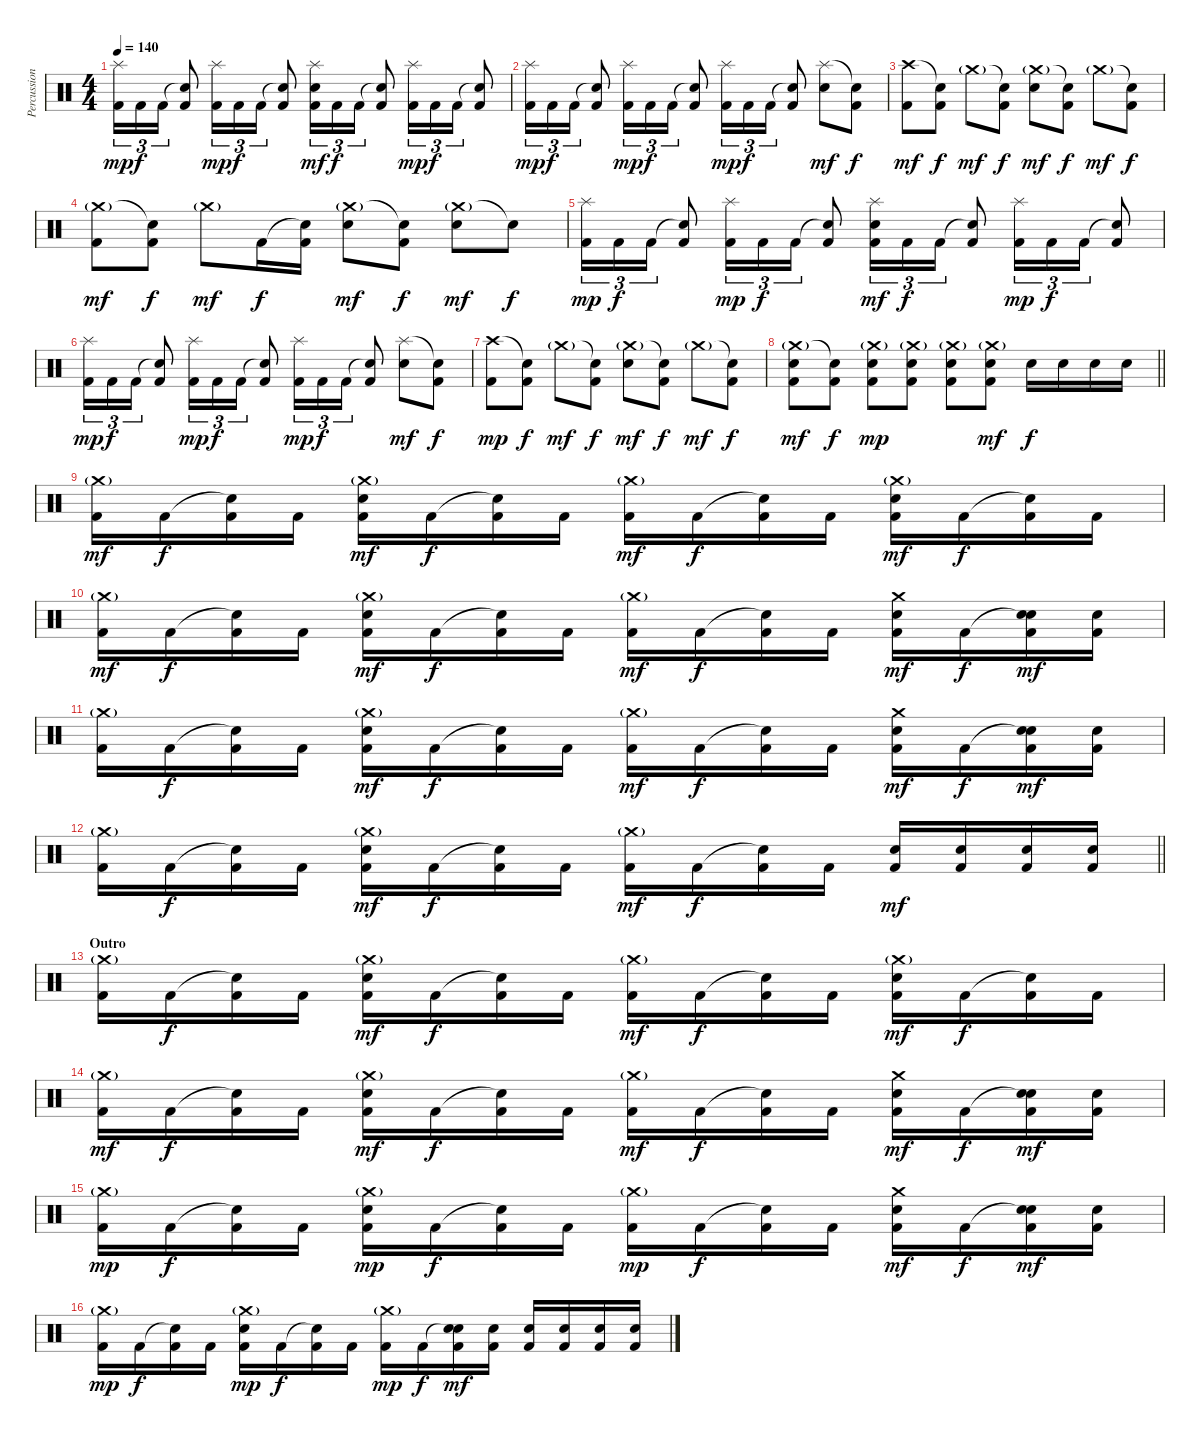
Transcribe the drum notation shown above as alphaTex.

\track ("Percussion" "Percussion") {instrument percussion}
\staff {score}
\articulation defaults
\ts (4 4)
\tempo 140
\clef neutral
\ks c
("Splash (hit)" "Kick (hit) 2").16{tu (3 2) dy mp} "Kick (hit) 2".16{tu (3 2) dy f} "Kick (hit) 2".16{tu (3 2)} ("Snare (hit)"{t} "Kick (hit) 2").8 ("Splash (hit)" "Kick (hit) 2").16{tu (3 2) dy mp} "Kick (hit) 2".16{tu (3 2) dy f} "Kick (hit) 2".16{tu (3 2)} ("Snare (hit)"{t} "Kick (hit) 2").8 ("Splash (hit)" "Electric Snare (hit)" "Kick (hit) 2").16{tu (3 2) dy mf} "Kick (hit) 2".16{tu (3 2) dy f} "Kick (hit) 2".16{tu (3 2)} ("Snare (hit)"{t} "Kick (hit) 2").8 ("Splash (hit)" "Kick (hit) 2").16{tu (3 2) dy mp} "Kick (hit) 2".16{tu (3 2) dy f} "Kick (hit) 2".16{tu (3 2)} ("Snare (hit)"{t} "Kick (hit) 2").8 |
("Splash (hit)" "Kick (hit) 2").16{tu (3 2) dy mp} "Kick (hit) 2".16{tu (3 2) dy f} "Kick (hit) 2".16{tu (3 2)} ("Snare (hit)"{t} "Kick (hit) 2").8 ("Splash (hit)" "Kick (hit) 2").16{tu (3 2) dy mp} "Kick (hit) 2".16{tu (3 2) dy f} "Kick (hit) 2".16{tu (3 2)} ("Snare (hit)"{t} "Kick (hit) 2").8 ("Splash (hit)" "Kick (hit) 2").16{tu (3 2) dy mp} "Kick (hit) 2".16{tu (3 2) dy f} "Kick (hit) 2".16{tu (3 2)} ("Snare (hit)"{t} "Kick (hit) 2").8 ("Splash (hit)" "Electric Snare (hit)").8{dy mf} ("Snare (hit)"{t} "Kick (hit) 2").8{dy f} |
("Crash high (hit)" "Kick (hit) 2").8{dy mf} ("Snare (hit)"{t} "Kick (hit) 2").8{dy f} "Crash medium (hit)"{g}.8{dy mf} ("Snare (hit)"{t} "Kick (hit) 2").8{dy f} ("Crash medium (hit)"{g} "Electric Snare (hit)").8{dy mf} ("Snare (hit)"{t} "Kick (hit) 2").8{dy f} "Crash medium (hit)"{g}.8{dy mf} ("Snare (hit)"{t} "Kick (hit) 2").8{dy f} |
("Crash medium (hit)"{g} "Kick (hit) 2").8{dy mf} ("Snare (hit)"{t} "Kick (hit) 2").8{dy f} "Crash medium (hit)"{g}.8{dy mf} "Kick (hit) 2".16{dy f} ("Snare (hit)"{t} "Kick (hit) 2").16 ("Crash medium (hit)"{g} "Electric Snare (hit)").8{dy mf} ("Snare (hit)"{t} "Kick (hit) 2").8{dy f} ("Crash medium (hit)"{g} "Electric Snare (hit)").8{dy mf} "Snare (hit)"{t}.8{dy f} |
("Splash (hit)" "Kick (hit) 2").16{tu (3 2) dy mp} "Kick (hit) 2".16{tu (3 2) dy f} "Kick (hit) 2".16{tu (3 2)} ("Snare (hit)"{t} "Kick (hit) 2").8 ("Splash (hit)" "Kick (hit) 2").16{tu (3 2) dy mp} "Kick (hit) 2".16{tu (3 2) dy f} "Kick (hit) 2".16{tu (3 2)} ("Snare (hit)"{t} "Kick (hit) 2").8 ("Splash (hit)" "Electric Snare (hit)" "Kick (hit) 2").16{tu (3 2) dy mf} "Kick (hit) 2".16{tu (3 2) dy f} "Kick (hit) 2".16{tu (3 2)} ("Snare (hit)"{t} "Kick (hit) 2").8 ("Splash (hit)" "Kick (hit) 2").16{tu (3 2) dy mp} "Kick (hit) 2".16{tu (3 2) dy f} "Kick (hit) 2".16{tu (3 2)} ("Snare (hit)"{t} "Kick (hit) 2").8 |
("Splash (hit)" "Kick (hit) 2").16{tu (3 2) dy mp} "Kick (hit) 2".16{tu (3 2) dy f} "Kick (hit) 2".16{tu (3 2)} ("Snare (hit)"{t} "Kick (hit) 2").8 ("Splash (hit)" "Kick (hit) 2").16{tu (3 2) dy mp} "Kick (hit) 2".16{tu (3 2) dy f} "Kick (hit) 2".16{tu (3 2)} ("Snare (hit)"{t} "Kick (hit) 2").8 ("Splash (hit)" "Kick (hit) 2").16{tu (3 2) dy mp} "Kick (hit) 2".16{tu (3 2) dy f} "Kick (hit) 2".16{tu (3 2)} ("Snare (hit)"{t} "Kick (hit) 2").8 ("Splash (hit)" "Electric Snare (hit)").8{dy mf} ("Snare (hit)"{t} "Kick (hit) 2").8{dy f} |
("Crash high (hit)" "Kick (hit) 2").8{dy mp} ("Snare (hit)"{t} "Kick (hit) 2").8{dy f} "Crash medium (hit)"{g}.8{dy mf} ("Snare (hit)"{t} "Kick (hit) 2").8{dy f} ("Crash medium (hit)"{g} "Electric Snare (hit)").8{dy mf} ("Snare (hit)"{t} "Kick (hit) 2").8{dy f} "Crash medium (hit)"{g}.8{dy mf} ("Snare (hit)"{t} "Kick (hit) 2").8{dy f} |
\barLineRight lightlight
("Crash medium (hit)"{g} "Electric Snare (hit)" "Kick (hit) 2").8{dy mf} ("Snare (hit)"{t} "Kick (hit) 2").8{dy f} ("Crash medium (hit)"{g} "Electric Snare (hit)" "Kick (hit) 2").8{dy mp} ("Crash medium (hit)"{g} "Electric Snare (hit)" "Kick (hit) 2").8 ("Crash medium (hit)"{g} "Electric Snare (hit)" "Kick (hit) 2").8 ("Crash medium (hit)"{g} "Electric Snare (hit)" "Kick (hit) 2").8{dy mf} "Electric Snare (hit)".16{dy f} "Electric Snare (hit)".16 "Electric Snare (hit)".16 "Electric Snare (hit)".16 |
("Crash medium (hit)"{g} "Kick (hit) 2").16{dy mf} "Kick (hit) 2".16{dy f} ("Snare (hit)"{t} "Kick (hit) 2").16 "Kick (hit) 2".16 ("Crash medium (hit)"{g} "Electric Snare (hit)" "Kick (hit) 2").16{dy mf} "Kick (hit) 2".16{dy f} ("Snare (hit)"{t} "Kick (hit) 2").16 "Kick (hit) 2".16 ("Crash medium (hit)"{g} "Kick (hit) 2").16{dy mf} "Kick (hit) 2".16{dy f} ("Snare (hit)"{t} "Kick (hit) 2").16 "Kick (hit) 2".16 ("Crash medium (hit)"{g} "Electric Snare (hit)" "Kick (hit) 2").16{dy mf} "Kick (hit) 2".16{dy f} ("Snare (hit)"{t} "Kick (hit) 2").16 "Kick (hit) 2".16 |
("Crash medium (hit)"{g} "Kick (hit) 2").16{dy mf} "Kick (hit) 2".16{dy f} ("Snare (hit)"{t} "Kick (hit) 2").16 "Kick (hit) 2".16 ("Crash medium (hit)"{g} "Electric Snare (hit)" "Kick (hit) 2").16{dy mf} "Kick (hit) 2".16{dy f} ("Snare (hit)"{t} "Kick (hit) 2").16 "Kick (hit) 2".16 ("Crash medium (hit)"{g} "Kick (hit) 2").16{dy mf} "Kick (hit) 2".16{dy f} ("Snare (hit)"{t} "Kick (hit) 2").16 "Kick (hit) 2".16 ("Crash medium (hit)" "Electric Snare (hit)" "Kick (hit) 2").16{dy mf} "Kick (hit) 2".16{dy f} ("Snare (hit)"{t} "Electric Snare (hit)" "Kick (hit) 2").16{dy mf} ("Electric Snare (hit)" "Kick (hit) 2").16 |
("Crash medium (hit)"{g} "Kick (hit) 2").16 "Kick (hit) 2".16{dy f} ("Snare (hit)"{t} "Kick (hit) 2").16 "Kick (hit) 2".16 ("Crash medium (hit)"{g} "Electric Snare (hit)" "Kick (hit) 2").16{dy mf} "Kick (hit) 2".16{dy f} ("Snare (hit)"{t} "Kick (hit) 2").16 "Kick (hit) 2".16 ("Crash medium (hit)"{g} "Kick (hit) 2").16{dy mf} "Kick (hit) 2".16{dy f} ("Snare (hit)"{t} "Kick (hit) 2").16 "Kick (hit) 2".16 ("Crash medium (hit)" "Electric Snare (hit)" "Kick (hit) 2").16{dy mf} "Kick (hit) 2".16{dy f} ("Snare (hit)"{t} "Electric Snare (hit)" "Kick (hit) 2").16{dy mf} ("Electric Snare (hit)" "Kick (hit) 2").16 |
\barLineRight lightlight
("Crash medium (hit)"{g} "Kick (hit) 2").16 "Kick (hit) 2".16{dy f} ("Snare (hit)"{t} "Kick (hit) 2").16 "Kick (hit) 2".16 ("Crash medium (hit)"{g} "Electric Snare (hit)" "Kick (hit) 2").16{dy mf} "Kick (hit) 2".16{dy f} ("Snare (hit)"{t} "Kick (hit) 2").16 "Kick (hit) 2".16 ("Crash medium (hit)"{g} "Kick (hit) 2").16{dy mf} "Kick (hit) 2".16{dy f} ("Snare (hit)"{t} "Kick (hit) 2").16 "Kick (hit) 2".16 ("Electric Snare (hit)" "Kick (hit) 2").16{dy mf} ("Electric Snare (hit)" "Kick (hit) 2").16 ("Electric Snare (hit)" "Kick (hit) 2").16 ("Electric Snare (hit)" "Kick (hit) 2").16 |
\section ("" "Outro")
("Crash medium (hit)"{g} "Kick (hit) 2").16 "Kick (hit) 2".16{dy f} ("Snare (hit)"{t} "Kick (hit) 2").16 "Kick (hit) 2".16 ("Crash medium (hit)"{g} "Electric Snare (hit)" "Kick (hit) 2").16{dy mf} "Kick (hit) 2".16{dy f} ("Snare (hit)"{t} "Kick (hit) 2").16 "Kick (hit) 2".16 ("Crash medium (hit)"{g} "Kick (hit) 2").16{dy mf} "Kick (hit) 2".16{dy f} ("Snare (hit)"{t} "Kick (hit) 2").16 "Kick (hit) 2".16 ("Crash medium (hit)"{g} "Electric Snare (hit)" "Kick (hit) 2").16{dy mf} "Kick (hit) 2".16{dy f} ("Snare (hit)"{t} "Kick (hit) 2").16 "Kick (hit) 2".16 |
("Crash medium (hit)"{g} "Kick (hit) 2").16{dy mf} "Kick (hit) 2".16{dy f} ("Snare (hit)"{t} "Kick (hit) 2").16 "Kick (hit) 2".16 ("Crash medium (hit)"{g} "Electric Snare (hit)" "Kick (hit) 2").16{dy mf} "Kick (hit) 2".16{dy f} ("Snare (hit)"{t} "Kick (hit) 2").16 "Kick (hit) 2".16 ("Crash medium (hit)"{g} "Kick (hit) 2").16{dy mf} "Kick (hit) 2".16{dy f} ("Snare (hit)"{t} "Kick (hit) 2").16 "Kick (hit) 2".16 ("Crash medium (hit)" "Electric Snare (hit)" "Kick (hit) 2").16{dy mf} "Kick (hit) 2".16{dy f} ("Snare (hit)"{t} "Electric Snare (hit)" "Kick (hit) 2").16{dy mf} ("Electric Snare (hit)" "Kick (hit) 2").16 |
("Crash medium (hit)"{g} "Kick (hit) 2").16{dy mp volume 11} "Kick (hit) 2".16{dy f} ("Snare (hit)"{t} "Kick (hit) 2").16 "Kick (hit) 2".16 ("Crash medium (hit)"{g} "Electric Snare (hit)" "Kick (hit) 2").16{dy mp} "Kick (hit) 2".16{dy f} ("Snare (hit)"{t} "Kick (hit) 2").16 "Kick (hit) 2".16 ("Crash medium (hit)"{g} "Kick (hit) 2").16{dy mp} "Kick (hit) 2".16{dy f} ("Snare (hit)"{t} "Kick (hit) 2").16 "Kick (hit) 2".16 ("Crash medium (hit)" "Electric Snare (hit)" "Kick (hit) 2").16{dy mf} "Kick (hit) 2".16{dy f} ("Snare (hit)"{t} "Electric Snare (hit)" "Kick (hit) 2").16{dy mf} ("Electric Snare (hit)" "Kick (hit) 2").16 |
("Crash medium (hit)"{g} "Kick (hit) 2").16{dy mp} "Kick (hit) 2".16{dy f} ("Snare (hit)"{t} "Kick (hit) 2").16 "Kick (hit) 2".16 ("Crash medium (hit)"{g} "Electric Snare (hit)" "Kick (hit) 2").16{dy mp} "Kick (hit) 2".16{dy f} ("Snare (hit)"{t} "Kick (hit) 2").16 "Kick (hit) 2".16 ("Crash medium (hit)"{g} "Kick (hit) 2").16{dy mp} "Kick (hit) 2".16{dy f} ("Snare (hit)"{t} "Electric Snare (hit)" "Kick (hit) 2").16{dy mf} ("Electric Snare (hit)" "Kick (hit) 2").16 ("Electric Snare (hit)" "Kick (hit) 2").16 ("Electric Snare (hit)" "Kick (hit) 2").16 ("Electric Snare (hit)" "Kick (hit) 2").16 ("Electric Snare (hit)" "Kick (hit) 2").16
